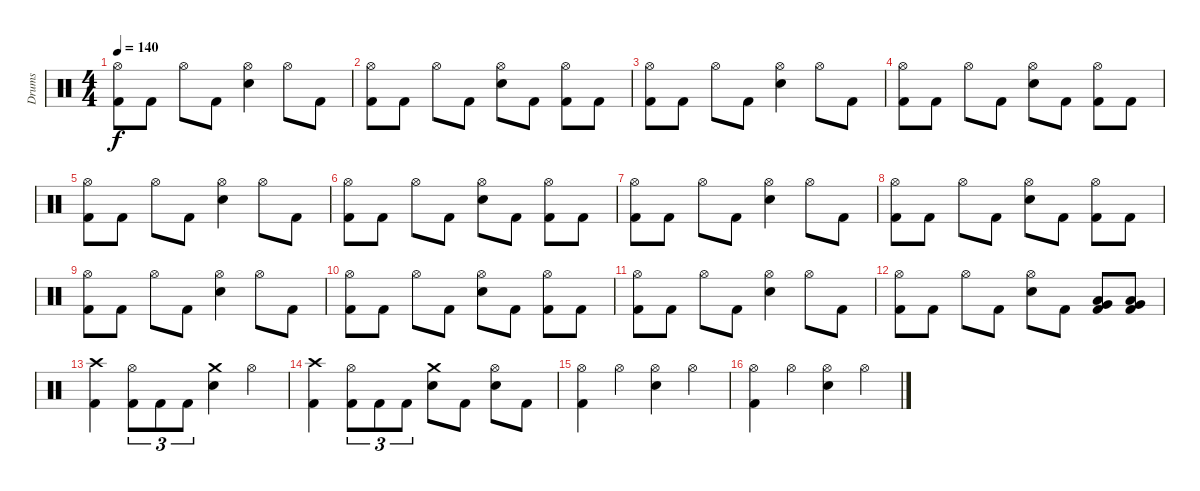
\track ("Drums" "Drums") {instrument percussion}
\staff {score}
\articulation defaults
\ts (4 4)
\tempo 140
\clef neutral
\ks c
("Hi-Hat (open)" "Kick (hit) 2").8{dy f} "Kick (hit) 2".8 "Hi-Hat (open)".8 "Kick (hit) 2".8 ("Hi-Hat (open)" "Snare (hit) 2").4 "Hi-Hat (open)".8 "Kick (hit) 2".8 |
("Hi-Hat (open)" "Kick (hit) 2").8 "Kick (hit) 2".8 "Hi-Hat (open)".8 "Kick (hit) 2".8 ("Hi-Hat (open)" "Snare (hit) 2").8 "Kick (hit) 2".8 ("Hi-Hat (open)" "Kick (hit) 2").8 "Kick (hit) 2".8 |
("Hi-Hat (open)" "Kick (hit) 2").8 "Kick (hit) 2".8 "Hi-Hat (open)".8 "Kick (hit) 2".8 ("Hi-Hat (open)" "Snare (hit) 2").4 "Hi-Hat (open)".8 "Kick (hit) 2".8 |
("Hi-Hat (open)" "Kick (hit) 2").8 "Kick (hit) 2".8 "Hi-Hat (open)".8 "Kick (hit) 2".8 ("Hi-Hat (open)" "Snare (hit) 2").8 "Kick (hit) 2".8 ("Hi-Hat (open)" "Kick (hit) 2").8 "Kick (hit) 2".8 |
("Hi-Hat (open)" "Kick (hit) 2").8 "Kick (hit) 2".8 "Hi-Hat (open)".8 "Kick (hit) 2".8 ("Hi-Hat (open)" "Snare (hit) 2").4 "Hi-Hat (open)".8 "Kick (hit) 2".8 |
("Hi-Hat (open)" "Kick (hit) 2").8 "Kick (hit) 2".8 "Hi-Hat (open)".8 "Kick (hit) 2".8 ("Hi-Hat (open)" "Snare (hit) 2").8 "Kick (hit) 2".8 ("Hi-Hat (open)" "Kick (hit) 2").8 "Kick (hit) 2".8 |
("Hi-Hat (open)" "Kick (hit) 2").8 "Kick (hit) 2".8 "Hi-Hat (open)".8 "Kick (hit) 2".8 ("Hi-Hat (open)" "Snare (hit) 2").4 "Hi-Hat (open)".8 "Kick (hit) 2".8 |
("Hi-Hat (open)" "Kick (hit) 2").8 "Kick (hit) 2".8 "Hi-Hat (open)".8 "Kick (hit) 2".8 ("Hi-Hat (open)" "Snare (hit) 2").8 "Kick (hit) 2".8 ("Hi-Hat (open)" "Kick (hit) 2").8 "Kick (hit) 2".8 |
("Hi-Hat (open)" "Kick (hit) 2").8 "Kick (hit) 2".8 "Hi-Hat (open)".8 "Kick (hit) 2".8 ("Hi-Hat (open)" "Snare (hit) 2").4 "Hi-Hat (open)".8 "Kick (hit) 2".8 |
("Hi-Hat (open)" "Kick (hit) 2").8 "Kick (hit) 2".8 "Hi-Hat (open)".8 "Kick (hit) 2".8 ("Hi-Hat (open)" "Snare (hit) 2").8 "Kick (hit) 2".8 ("Hi-Hat (open)" "Kick (hit) 2").8 "Kick (hit) 2".8 |
("Hi-Hat (open)" "Kick (hit) 2").8 "Kick (hit) 2".8 "Hi-Hat (open)".8 "Kick (hit) 2".8 ("Hi-Hat (open)" "Snare (hit) 2").4 "Hi-Hat (open)".8 "Kick (hit) 2".8 |
("Hi-Hat (open)" "Kick (hit) 2").8 "Kick (hit) 2".8 "Hi-Hat (open)".8 "Kick (hit) 2".8 ("Hi-Hat (open)" "Snare (hit) 2").8 "Kick (hit) 2".8 ("Low Tom (hit)" "Very Low Tom (hit)" "Kick (hit) 2").8 ("Very Low Tom (hit)" "Low Floor Tom (hit)" "Kick (hit) 2").8 |
("Crash high (hit)" "Kick (hit) 2").4 ("Hi-Hat (open)" "Kick (hit) 2").8{tu (3 2)} "Kick (hit) 2".8{tu (3 2)} "Kick (hit) 2".8{tu (3 2)} ("Crash medium (hit)" "Snare (hit) 2").4 "Hi-Hat (open)".4 |
("Crash high (hit)" "Kick (hit) 2").4 ("Hi-Hat (open)" "Kick (hit) 2").8{tu (3 2)} "Kick (hit) 2".8{tu (3 2)} "Kick (hit) 2".8{tu (3 2)} ("Crash medium (hit)" "Snare (hit) 2").8 "Kick (hit) 2".8 ("Hi-Hat (open)" "Snare (hit) 2").8 "Kick (hit) 2".8 |
("Hi-Hat (open)" "Kick (hit) 2").4 "Hi-Hat (open)".4 ("Hi-Hat (open)" "Snare (hit) 2").4 "Hi-Hat (open)".4 |
("Hi-Hat (open)" "Kick (hit) 2").4 "Hi-Hat (open)".4 ("Hi-Hat (open)" "Snare (hit) 2").4 "Hi-Hat (open)".4
